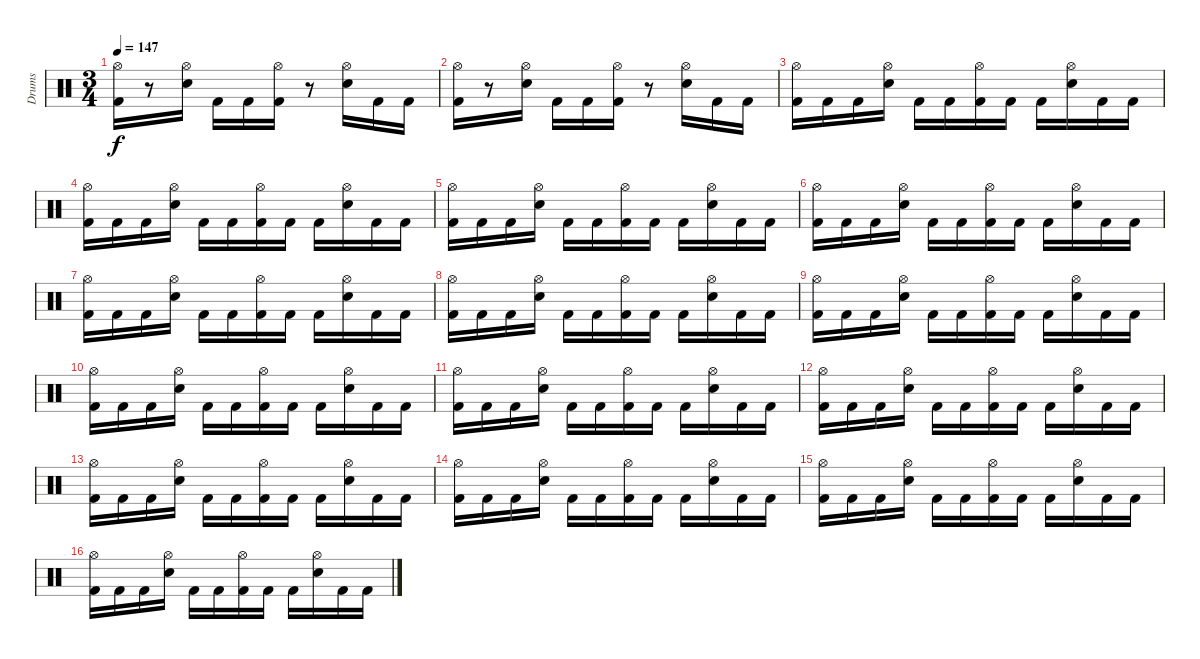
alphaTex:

\track ("Drums" "Drums") {instrument percussion}
\staff {score}
\articulation defaults
\ts (3 4)
\tempo 147
\clef neutral
\ks c
("Kick (hit) 2" "Hi-Hat (open)").16{dy f} r.8 ("Snare (hit) 2" "Hi-Hat (open)").16 "Kick (hit) 2".16 "Kick (hit) 2".16 ("Kick (hit) 2" "Hi-Hat (open)").16 r.8 ("Snare (hit) 2" "Hi-Hat (open)").16 "Kick (hit) 2".16 "Kick (hit) 2".16 |
("Kick (hit) 2" "Hi-Hat (open)").16 r.8 ("Snare (hit) 2" "Hi-Hat (open)").16 "Kick (hit) 2".16 "Kick (hit) 2".16 ("Kick (hit) 2" "Hi-Hat (open)").16 r.8 ("Snare (hit) 2" "Hi-Hat (open)").16 "Kick (hit) 2".16 "Kick (hit) 2".16 |
("Kick (hit) 2" "Hi-Hat (open)").16 "Kick (hit) 2".16 "Kick (hit) 2".16 ("Snare (hit) 2" "Hi-Hat (open)").16 "Kick (hit) 2".16 "Kick (hit) 2".16 ("Kick (hit) 2" "Hi-Hat (open)").16 "Kick (hit) 2".16 "Kick (hit) 2".16 ("Snare (hit) 2" "Hi-Hat (open)").16 "Kick (hit) 2".16 "Kick (hit) 2".16 |
("Kick (hit) 2" "Hi-Hat (open)").16 "Kick (hit) 2".16 "Kick (hit) 2".16 ("Snare (hit) 2" "Hi-Hat (open)").16 "Kick (hit) 2".16 "Kick (hit) 2".16 ("Kick (hit) 2" "Hi-Hat (open)").16 "Kick (hit) 2".16 "Kick (hit) 2".16 ("Snare (hit) 2" "Hi-Hat (open)").16 "Kick (hit) 2".16 "Kick (hit) 2".16 |
("Kick (hit) 2" "Hi-Hat (open)").16 "Kick (hit) 2".16 "Kick (hit) 2".16 ("Snare (hit) 2" "Hi-Hat (open)").16 "Kick (hit) 2".16 "Kick (hit) 2".16 ("Kick (hit) 2" "Hi-Hat (open)").16 "Kick (hit) 2".16 "Kick (hit) 2".16 ("Snare (hit) 2" "Hi-Hat (open)").16 "Kick (hit) 2".16 "Kick (hit) 2".16 |
("Kick (hit) 2" "Hi-Hat (open)").16 "Kick (hit) 2".16 "Kick (hit) 2".16 ("Snare (hit) 2" "Hi-Hat (open)").16 "Kick (hit) 2".16 "Kick (hit) 2".16 ("Kick (hit) 2" "Hi-Hat (open)").16 "Kick (hit) 2".16 "Kick (hit) 2".16 ("Snare (hit) 2" "Hi-Hat (open)").16 "Kick (hit) 2".16 "Kick (hit) 2".16 |
("Kick (hit) 2" "Hi-Hat (open)").16 "Kick (hit) 2".16 "Kick (hit) 2".16 ("Snare (hit) 2" "Hi-Hat (open)").16 "Kick (hit) 2".16 "Kick (hit) 2".16 ("Kick (hit) 2" "Hi-Hat (open)").16 "Kick (hit) 2".16 "Kick (hit) 2".16 ("Snare (hit) 2" "Hi-Hat (open)").16 "Kick (hit) 2".16 "Kick (hit) 2".16 |
("Kick (hit) 2" "Hi-Hat (open)").16 "Kick (hit) 2".16 "Kick (hit) 2".16 ("Snare (hit) 2" "Hi-Hat (open)").16 "Kick (hit) 2".16 "Kick (hit) 2".16 ("Kick (hit) 2" "Hi-Hat (open)").16 "Kick (hit) 2".16 "Kick (hit) 2".16 ("Snare (hit) 2" "Hi-Hat (open)").16 "Kick (hit) 2".16 "Kick (hit) 2".16 |
("Kick (hit) 2" "Hi-Hat (open)").16 "Kick (hit) 2".16 "Kick (hit) 2".16 ("Snare (hit) 2" "Hi-Hat (open)").16 "Kick (hit) 2".16 "Kick (hit) 2".16 ("Kick (hit) 2" "Hi-Hat (open)").16 "Kick (hit) 2".16 "Kick (hit) 2".16 ("Snare (hit) 2" "Hi-Hat (open)").16 "Kick (hit) 2".16 "Kick (hit) 2".16 |
("Kick (hit) 2" "Hi-Hat (open)").16 "Kick (hit) 2".16 "Kick (hit) 2".16 ("Snare (hit) 2" "Hi-Hat (open)").16 "Kick (hit) 2".16 "Kick (hit) 2".16 ("Kick (hit) 2" "Hi-Hat (open)").16 "Kick (hit) 2".16 "Kick (hit) 2".16 ("Snare (hit) 2" "Hi-Hat (open)").16 "Kick (hit) 2".16 "Kick (hit) 2".16 |
("Kick (hit) 2" "Hi-Hat (open)").16 "Kick (hit) 2".16 "Kick (hit) 2".16 ("Snare (hit) 2" "Hi-Hat (open)").16 "Kick (hit) 2".16 "Kick (hit) 2".16 ("Kick (hit) 2" "Hi-Hat (open)").16 "Kick (hit) 2".16 "Kick (hit) 2".16 ("Snare (hit) 2" "Hi-Hat (open)").16 "Kick (hit) 2".16 "Kick (hit) 2".16 |
("Kick (hit) 2" "Hi-Hat (open)").16 "Kick (hit) 2".16 "Kick (hit) 2".16 ("Snare (hit) 2" "Hi-Hat (open)").16 "Kick (hit) 2".16 "Kick (hit) 2".16 ("Kick (hit) 2" "Hi-Hat (open)").16 "Kick (hit) 2".16 "Kick (hit) 2".16 ("Snare (hit) 2" "Hi-Hat (open)").16 "Kick (hit) 2".16 "Kick (hit) 2".16 |
("Kick (hit) 2" "Hi-Hat (open)").16 "Kick (hit) 2".16 "Kick (hit) 2".16 ("Snare (hit) 2" "Hi-Hat (open)").16 "Kick (hit) 2".16 "Kick (hit) 2".16 ("Kick (hit) 2" "Hi-Hat (open)").16 "Kick (hit) 2".16 "Kick (hit) 2".16 ("Snare (hit) 2" "Hi-Hat (open)").16 "Kick (hit) 2".16 "Kick (hit) 2".16 |
("Kick (hit) 2" "Hi-Hat (open)").16 "Kick (hit) 2".16 "Kick (hit) 2".16 ("Snare (hit) 2" "Hi-Hat (open)").16 "Kick (hit) 2".16 "Kick (hit) 2".16 ("Kick (hit) 2" "Hi-Hat (open)").16 "Kick (hit) 2".16 "Kick (hit) 2".16 ("Snare (hit) 2" "Hi-Hat (open)").16 "Kick (hit) 2".16 "Kick (hit) 2".16 |
("Kick (hit) 2" "Hi-Hat (open)").16 "Kick (hit) 2".16 "Kick (hit) 2".16 ("Snare (hit) 2" "Hi-Hat (open)").16 "Kick (hit) 2".16 "Kick (hit) 2".16 ("Kick (hit) 2" "Hi-Hat (open)").16 "Kick (hit) 2".16 "Kick (hit) 2".16 ("Snare (hit) 2" "Hi-Hat (open)").16 "Kick (hit) 2".16 "Kick (hit) 2".16 |
("Kick (hit) 2" "Hi-Hat (open)").16 "Kick (hit) 2".16 "Kick (hit) 2".16 ("Snare (hit) 2" "Hi-Hat (open)").16 "Kick (hit) 2".16 "Kick (hit) 2".16 ("Kick (hit) 2" "Hi-Hat (open)").16 "Kick (hit) 2".16 "Kick (hit) 2".16 ("Snare (hit) 2" "Hi-Hat (open)").16 "Kick (hit) 2".16 "Kick (hit) 2".16
